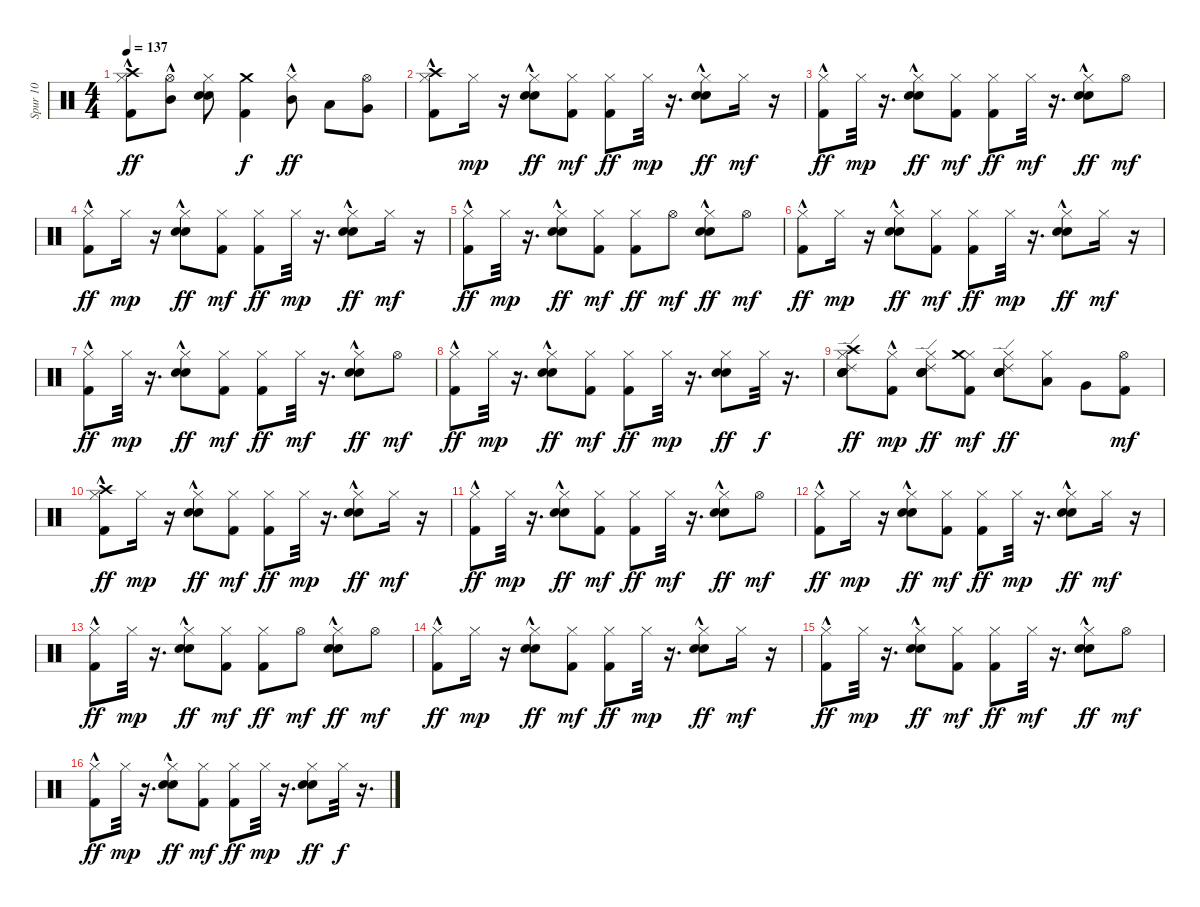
\track ("Spur 10" "Spur 10") {instrument percussion}
\staff {score}
\articulation defaults
\ts (4 4)
\tempo 137
\clef neutral
\ks c
("Kick (hit) 2"{hac} "Crash high (hit)" "Hi-Hat (closed)").8{dy ff} ("Hi-Hat (open)" "Mid Tom (hit)"{hac}).8 ("Electric Snare (hit)" "Snare (hit) 2" "Hi-Hat (closed)").8 ("Kick (hit) 2" "Crash medium (hit)").4{dy f} ("Hi-Hat (closed)" "Mid Tom (hit)"{hac}).8{dy ff} "Low Tom (hit)".8 ("Hi-Hat (open)" "Very Low Tom (hit)").8 |
("Kick (hit) 2"{hac} "Hi-Hat (closed)" "Crash high (hit)").8 "Hi-Hat (closed)".16{dy mp} r.16 ("Electric Snare (hit)"{hac} "Snare (hit) 2"{hac} "Hi-Hat (closed)").8{dy ff} ("Kick (hit) 2" "Hi-Hat (closed)").8{dy mf} ("Kick (hit) 2" "Hi-Hat (closed)").8{dy ff} "Hi-Hat (closed)".32{dy mp} r.16{d} ("Electric Snare (hit)"{hac} "Snare (hit) 2"{hac} "Hi-Hat (closed)").8{dy ff} "Hi-Hat (closed)".16{dy mf} r.16 |
("Kick (hit) 2"{hac} "Hi-Hat (closed)").8{dy ff} "Hi-Hat (closed)".32{dy mp} r.16{d} ("Electric Snare (hit)"{hac} "Snare (hit) 2"{hac} "Hi-Hat (closed)").8{dy ff} ("Kick (hit) 2" "Hi-Hat (closed)").8{dy mf} ("Kick (hit) 2" "Hi-Hat (closed)").8{dy ff} "Hi-Hat (closed)".32{dy mf} r.16{d} ("Electric Snare (hit)"{hac} "Snare (hit) 2"{hac} "Hi-Hat (closed)").8{dy ff} "Hi-Hat (open)".8{dy mf} |
("Kick (hit) 2"{hac} "Hi-Hat (closed)").8{dy ff} "Hi-Hat (closed)".16{dy mp} r.16 ("Electric Snare (hit)"{hac} "Snare (hit) 2"{hac} "Hi-Hat (closed)").8{dy ff} ("Kick (hit) 2" "Hi-Hat (closed)").8{dy mf} ("Kick (hit) 2" "Hi-Hat (closed)").8{dy ff} "Hi-Hat (closed)".32{dy mp} r.16{d} ("Electric Snare (hit)"{hac} "Snare (hit) 2"{hac} "Hi-Hat (closed)").8{dy ff} "Hi-Hat (closed)".16{dy mf} r.16 |
("Kick (hit) 2"{hac} "Hi-Hat (closed)").8{dy ff} "Hi-Hat (closed)".32{dy mp} r.16{d} ("Electric Snare (hit)"{hac} "Snare (hit) 2"{hac} "Hi-Hat (closed)").8{dy ff} ("Kick (hit) 2" "Hi-Hat (closed)").8{dy mf} ("Kick (hit) 2" "Hi-Hat (closed)").8{dy ff} "Hi-Hat (open)".8{dy mf} ("Electric Snare (hit)"{hac} "Snare (hit) 2"{hac} "Hi-Hat (closed)").8{dy ff} "Hi-Hat (open)".8{dy mf} |
("Kick (hit) 2"{hac} "Hi-Hat (closed)").8{dy ff} "Hi-Hat (closed)".16{dy mp} r.16 ("Electric Snare (hit)"{hac} "Snare (hit) 2"{hac} "Hi-Hat (closed)").8{dy ff} ("Kick (hit) 2" "Hi-Hat (closed)").8{dy mf} ("Kick (hit) 2" "Hi-Hat (closed)").8{dy ff} "Hi-Hat (closed)".32{dy mp} r.16{d} ("Electric Snare (hit)"{hac} "Snare (hit) 2"{hac} "Hi-Hat (closed)").8{dy ff} "Hi-Hat (closed)".16{dy mf} r.16 |
("Kick (hit) 2"{hac} "Hi-Hat (closed)").8{dy ff} "Hi-Hat (closed)".32{dy mp} r.16{d} ("Electric Snare (hit)"{hac} "Snare (hit) 2"{hac} "Hi-Hat (closed)").8{dy ff} ("Kick (hit) 2" "Hi-Hat (closed)").8{dy mf} ("Kick (hit) 2" "Hi-Hat (closed)").8{dy ff} "Hi-Hat (closed)".32{dy mf} r.16{d} ("Electric Snare (hit)"{hac} "Snare (hit) 2"{hac} "Hi-Hat (closed)").8{dy ff} "Hi-Hat (open)".8{dy mf} |
("Kick (hit) 2"{hac} "Hi-Hat (closed)").8{dy ff} "Hi-Hat (closed)".32{dy mp} r.16{d} ("Electric Snare (hit)"{hac} "Snare (hit) 2"{hac} "Hi-Hat (closed)").8{dy ff} ("Kick (hit) 2" "Hi-Hat (closed)").8{dy mf} ("Kick (hit) 2" "Hi-Hat (closed)").8{dy ff} "Hi-Hat (closed)".32{dy mp} r.16{d} ("Electric Snare (hit)" "Snare (hit) 2" "Hi-Hat (closed)").8{dy ff} "Hi-Hat (closed)".32{dy f} r.16{d} |
("Snare (hit)" "Electric Snare (hit)" "Ride (edge) 2" "Snare (hit) 2" "Crash high (hit)" "Hi-Hat (closed)").8{dy ff} ("Kick (hit) 2"{hac} "Hi-Hat (closed)").8{dy mp} ("Electric Snare (hit)" "Snare (hit)" "Snare (hit) 2" "Ride (edge) 2" "Hi-Hat (closed)").8{dy ff} ("Kick (hit) 2" "Hi-Hat (closed)" "Crash medium (hit)").8{dy mf} ("Electric Snare (hit)" "Snare (hit)" "Snare (hit) 2" "Ride (edge) 2" "Hi-Hat (closed)").8{dy ff} ("Hi-Hat (closed)" "Low Tom (hit)").8 "Very Low Tom (hit)".8 ("Kick (hit) 2" "Hi-Hat (open)").8{dy mf} |
("Kick (hit) 2"{hac} "Hi-Hat (closed)" "Crash high (hit)").8{dy ff} "Hi-Hat (closed)".16{dy mp} r.16 ("Electric Snare (hit)"{hac} "Snare (hit) 2"{hac} "Hi-Hat (closed)").8{dy ff} ("Kick (hit) 2" "Hi-Hat (closed)").8{dy mf} ("Kick (hit) 2" "Hi-Hat (closed)").8{dy ff} "Hi-Hat (closed)".32{dy mp} r.16{d} ("Electric Snare (hit)"{hac} "Snare (hit) 2"{hac} "Hi-Hat (closed)").8{dy ff} "Hi-Hat (closed)".16{dy mf} r.16 |
("Kick (hit) 2"{hac} "Hi-Hat (closed)").8{dy ff} "Hi-Hat (closed)".32{dy mp} r.16{d} ("Electric Snare (hit)"{hac} "Snare (hit) 2"{hac} "Hi-Hat (closed)").8{dy ff} ("Kick (hit) 2" "Hi-Hat (closed)").8{dy mf} ("Kick (hit) 2" "Hi-Hat (closed)").8{dy ff} "Hi-Hat (closed)".32{dy mf} r.16{d} ("Electric Snare (hit)"{hac} "Snare (hit) 2"{hac} "Hi-Hat (closed)").8{dy ff} "Hi-Hat (open)".8{dy mf} |
("Kick (hit) 2"{hac} "Hi-Hat (closed)").8{dy ff} "Hi-Hat (closed)".16{dy mp} r.16 ("Electric Snare (hit)"{hac} "Snare (hit) 2"{hac} "Hi-Hat (closed)").8{dy ff} ("Kick (hit) 2" "Hi-Hat (closed)").8{dy mf} ("Kick (hit) 2" "Hi-Hat (closed)").8{dy ff} "Hi-Hat (closed)".32{dy mp} r.16{d} ("Electric Snare (hit)"{hac} "Snare (hit) 2"{hac} "Hi-Hat (closed)").8{dy ff} "Hi-Hat (closed)".16{dy mf} r.16 |
("Kick (hit) 2"{hac} "Hi-Hat (closed)").8{dy ff} "Hi-Hat (closed)".32{dy mp} r.16{d} ("Electric Snare (hit)"{hac} "Snare (hit) 2"{hac} "Hi-Hat (closed)").8{dy ff} ("Kick (hit) 2" "Hi-Hat (closed)").8{dy mf} ("Kick (hit) 2" "Hi-Hat (closed)").8{dy ff} "Hi-Hat (open)".8{dy mf} ("Electric Snare (hit)"{hac} "Snare (hit) 2"{hac} "Hi-Hat (closed)").8{dy ff} "Hi-Hat (open)".8{dy mf} |
("Kick (hit) 2"{hac} "Hi-Hat (closed)").8{dy ff} "Hi-Hat (closed)".16{dy mp} r.16 ("Electric Snare (hit)"{hac} "Snare (hit) 2"{hac} "Hi-Hat (closed)").8{dy ff} ("Kick (hit) 2" "Hi-Hat (closed)").8{dy mf} ("Kick (hit) 2" "Hi-Hat (closed)").8{dy ff} "Hi-Hat (closed)".32{dy mp} r.16{d} ("Electric Snare (hit)"{hac} "Snare (hit) 2"{hac} "Hi-Hat (closed)").8{dy ff} "Hi-Hat (closed)".16{dy mf} r.16 |
("Kick (hit) 2"{hac} "Hi-Hat (closed)").8{dy ff} "Hi-Hat (closed)".32{dy mp} r.16{d} ("Electric Snare (hit)"{hac} "Snare (hit) 2"{hac} "Hi-Hat (closed)").8{dy ff} ("Kick (hit) 2" "Hi-Hat (closed)").8{dy mf} ("Kick (hit) 2" "Hi-Hat (closed)").8{dy ff} "Hi-Hat (closed)".32{dy mf} r.16{d} ("Electric Snare (hit)"{hac} "Snare (hit) 2"{hac} "Hi-Hat (closed)").8{dy ff} "Hi-Hat (open)".8{dy mf} |
("Kick (hit) 2"{hac} "Hi-Hat (closed)").8{dy ff} "Hi-Hat (closed)".32{dy mp} r.16{d} ("Electric Snare (hit)"{hac} "Snare (hit) 2"{hac} "Hi-Hat (closed)").8{dy ff} ("Kick (hit) 2" "Hi-Hat (closed)").8{dy mf} ("Kick (hit) 2" "Hi-Hat (closed)").8{dy ff} "Hi-Hat (closed)".32{dy mp} r.16{d} ("Electric Snare (hit)" "Snare (hit) 2" "Hi-Hat (closed)").8{dy ff} "Hi-Hat (closed)".32{dy f} r.16{d}
